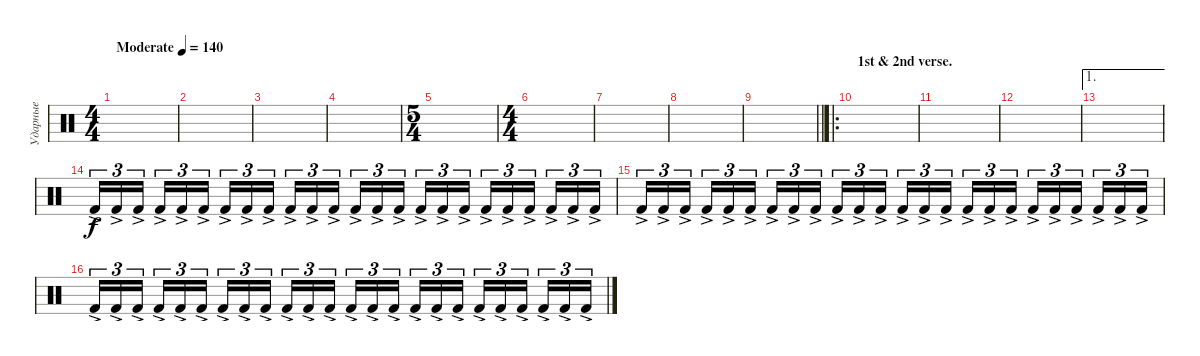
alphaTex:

\track ("Ударные" "Ударные") {instrument percussion}
\staff {score}
\articulation defaults
\ts (4 4)
\tempo (140 "Moderate")
\clef neutral
\ks c
|
|
|
|
\ts (5 4)
|
\ts (4 4)
|
|
|
\barLineRight lightlight
|
\ro
\section ("" "1st & 2nd verse. ")
|
|
|
\ae 1
|
"Kick (hit) 2"{ac}.16{tu (3 2)} "Kick (hit) 2"{ac}.16{tu (3 2)} "Kick (hit) 2"{ac}.16{tu (3 2) beam splitsecondary} "Kick (hit) 2"{ac}.16{tu (3 2)} "Kick (hit) 2"{ac}.16{tu (3 2)} "Kick (hit) 2"{ac}.16{tu (3 2)} "Kick (hit) 2"{ac}.16{tu (3 2)} "Kick (hit) 2"{ac}.16{tu (3 2)} "Kick (hit) 2"{ac}.16{tu (3 2) beam splitsecondary} "Kick (hit) 2"{ac}.16{tu (3 2)} "Kick (hit) 2"{ac}.16{tu (3 2)} "Kick (hit) 2"{ac}.16{tu (3 2)} "Kick (hit) 2"{ac}.16{tu (3 2)} "Kick (hit) 2"{ac}.16{tu (3 2)} "Kick (hit) 2"{ac}.16{tu (3 2) beam splitsecondary} "Kick (hit) 2"{ac}.16{tu (3 2)} "Kick (hit) 2"{ac}.16{tu (3 2)} "Kick (hit) 2"{ac}.16{tu (3 2)} "Kick (hit) 2"{ac}.16{tu (3 2)} "Kick (hit) 2"{ac}.16{tu (3 2)} "Kick (hit) 2"{ac}.16{tu (3 2) beam splitsecondary} "Kick (hit) 2"{ac}.16{tu (3 2)} "Kick (hit) 2"{ac}.16{tu (3 2)} "Kick (hit) 2"{ac}.16{tu (3 2)} |
"Kick (hit) 2"{ac}.16{tu (3 2)} "Kick (hit) 2"{ac}.16{tu (3 2)} "Kick (hit) 2"{ac}.16{tu (3 2) beam splitsecondary} "Kick (hit) 2"{ac}.16{tu (3 2)} "Kick (hit) 2"{ac}.16{tu (3 2)} "Kick (hit) 2"{ac}.16{tu (3 2)} "Kick (hit) 2"{ac}.16{tu (3 2)} "Kick (hit) 2"{ac}.16{tu (3 2)} "Kick (hit) 2"{ac}.16{tu (3 2) beam splitsecondary} "Kick (hit) 2"{ac}.16{tu (3 2)} "Kick (hit) 2"{ac}.16{tu (3 2)} "Kick (hit) 2"{ac}.16{tu (3 2)} "Kick (hit) 2"{ac}.16{tu (3 2)} "Kick (hit) 2"{ac}.16{tu (3 2)} "Kick (hit) 2"{ac}.16{tu (3 2) beam splitsecondary} "Kick (hit) 2"{ac}.16{tu (3 2)} "Kick (hit) 2"{ac}.16{tu (3 2)} "Kick (hit) 2"{ac}.16{tu (3 2)} "Kick (hit) 2"{ac}.16{tu (3 2)} "Kick (hit) 2"{ac}.16{tu (3 2)} "Kick (hit) 2"{ac}.16{tu (3 2) beam splitsecondary} "Kick (hit) 2"{ac}.16{tu (3 2)} "Kick (hit) 2"{ac}.16{tu (3 2)} "Kick (hit) 2"{ac}.16{tu (3 2)} |
"Kick (hit) 2"{ac}.16{tu (3 2)} "Kick (hit) 2"{ac}.16{tu (3 2)} "Kick (hit) 2"{ac}.16{tu (3 2) beam splitsecondary} "Kick (hit) 2"{ac}.16{tu (3 2)} "Kick (hit) 2"{ac}.16{tu (3 2)} "Kick (hit) 2"{ac}.16{tu (3 2)} "Kick (hit) 2"{ac}.16{tu (3 2)} "Kick (hit) 2"{ac}.16{tu (3 2)} "Kick (hit) 2"{ac}.16{tu (3 2) beam splitsecondary} "Kick (hit) 2"{ac}.16{tu (3 2)} "Kick (hit) 2"{ac}.16{tu (3 2)} "Kick (hit) 2"{ac}.16{tu (3 2)} "Kick (hit) 2"{ac}.16{tu (3 2)} "Kick (hit) 2"{ac}.16{tu (3 2)} "Kick (hit) 2"{ac}.16{tu (3 2) beam splitsecondary} "Kick (hit) 2"{ac}.16{tu (3 2)} "Kick (hit) 2"{ac}.16{tu (3 2)} "Kick (hit) 2"{ac}.16{tu (3 2)} "Kick (hit) 2"{ac}.16{tu (3 2)} "Kick (hit) 2"{ac}.16{tu (3 2)} "Kick (hit) 2"{ac}.16{tu (3 2) beam splitsecondary} "Kick (hit) 2"{ac}.16{tu (3 2)} "Kick (hit) 2"{ac}.16{tu (3 2)} "Kick (hit) 2"{ac}.16{tu (3 2)}
